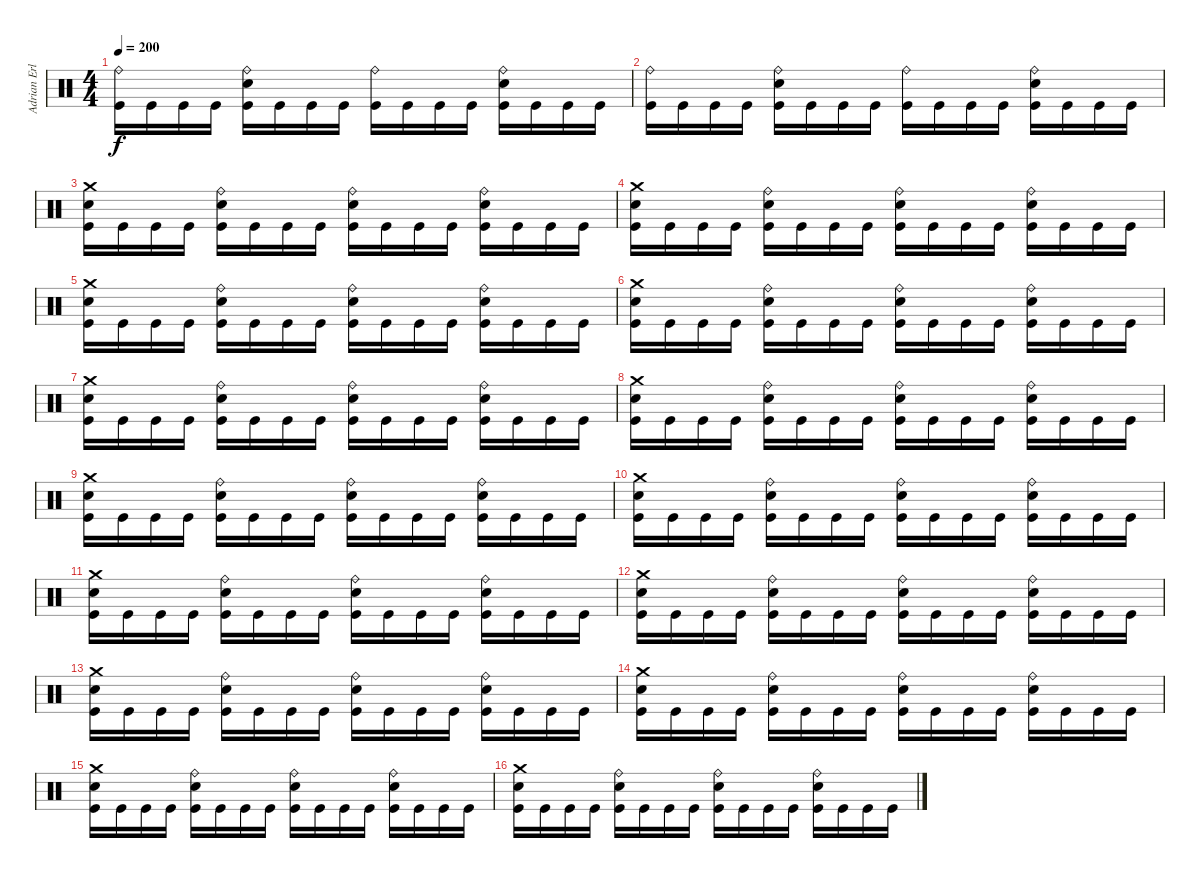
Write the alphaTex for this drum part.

\track ("Adrian Erlandsson" "Adrian Erl") {instrument percussion}
\staff {score}
\articulation defaults
\ts (4 4)
\tempo 200
\clef neutral
\ks c
("Ride (bell)" "Kick (hit)").16{dy f} "Kick (hit)".16 "Kick (hit)".16 "Kick (hit)".16 ("Ride (bell)" "Electric Snare (hit)" "Kick (hit)").16 "Kick (hit)".16 "Kick (hit)".16 "Kick (hit)".16 ("Ride (bell)" "Kick (hit)").16 "Kick (hit)".16 "Kick (hit)".16 "Kick (hit)".16 ("Ride (bell)" "Electric Snare (hit)" "Kick (hit)").16 "Kick (hit)".16 "Kick (hit)".16 "Kick (hit)".16 |
("Ride (bell)" "Kick (hit)").16 "Kick (hit)".16 "Kick (hit)".16 "Kick (hit)".16 ("Ride (bell)" "Electric Snare (hit)" "Kick (hit)").16 "Kick (hit)".16 "Kick (hit)".16 "Kick (hit)".16 ("Ride (bell)" "Kick (hit)").16 "Kick (hit)".16 "Kick (hit)".16 "Kick (hit)".16 ("Ride (bell)" "Electric Snare (hit)" "Kick (hit)").16 "Kick (hit)".16 "Kick (hit)".16 "Kick (hit)".16 |
("Crash medium (hit)" "Electric Snare (hit)" "Kick (hit)").16 "Kick (hit)".16 "Kick (hit)".16 "Kick (hit)".16 ("Ride (bell)" "Electric Snare (hit)" "Kick (hit)").16 "Kick (hit)".16 "Kick (hit)".16 "Kick (hit)".16 ("Ride (bell)" "Electric Snare (hit)" "Kick (hit)").16 "Kick (hit)".16 "Kick (hit)".16 "Kick (hit)".16 ("Ride (bell)" "Electric Snare (hit)" "Kick (hit)").16 "Kick (hit)".16 "Kick (hit)".16 "Kick (hit)".16 |
("Crash medium (hit)" "Electric Snare (hit)" "Kick (hit)").16 "Kick (hit)".16 "Kick (hit)".16 "Kick (hit)".16 ("Ride (bell)" "Electric Snare (hit)" "Kick (hit)").16 "Kick (hit)".16 "Kick (hit)".16 "Kick (hit)".16 ("Ride (bell)" "Electric Snare (hit)" "Kick (hit)").16 "Kick (hit)".16 "Kick (hit)".16 "Kick (hit)".16 ("Ride (bell)" "Electric Snare (hit)" "Kick (hit)").16 "Kick (hit)".16 "Kick (hit)".16 "Kick (hit)".16 |
("Crash medium (hit)" "Electric Snare (hit)" "Kick (hit)").16 "Kick (hit)".16 "Kick (hit)".16 "Kick (hit)".16 ("Ride (bell)" "Electric Snare (hit)" "Kick (hit)").16 "Kick (hit)".16 "Kick (hit)".16 "Kick (hit)".16 ("Ride (bell)" "Electric Snare (hit)" "Kick (hit)").16 "Kick (hit)".16 "Kick (hit)".16 "Kick (hit)".16 ("Ride (bell)" "Electric Snare (hit)" "Kick (hit)").16 "Kick (hit)".16 "Kick (hit)".16 "Kick (hit)".16 |
("Crash medium (hit)" "Electric Snare (hit)" "Kick (hit)").16 "Kick (hit)".16 "Kick (hit)".16 "Kick (hit)".16 ("Ride (bell)" "Electric Snare (hit)" "Kick (hit)").16 "Kick (hit)".16 "Kick (hit)".16 "Kick (hit)".16 ("Ride (bell)" "Electric Snare (hit)" "Kick (hit)").16 "Kick (hit)".16 "Kick (hit)".16 "Kick (hit)".16 ("Ride (bell)" "Electric Snare (hit)" "Kick (hit)").16 "Kick (hit)".16 "Kick (hit)".16 "Kick (hit)".16 |
("Crash medium (hit)" "Electric Snare (hit)" "Kick (hit)").16 "Kick (hit)".16 "Kick (hit)".16 "Kick (hit)".16 ("Ride (bell)" "Electric Snare (hit)" "Kick (hit)").16 "Kick (hit)".16 "Kick (hit)".16 "Kick (hit)".16 ("Ride (bell)" "Electric Snare (hit)" "Kick (hit)").16 "Kick (hit)".16 "Kick (hit)".16 "Kick (hit)".16 ("Ride (bell)" "Electric Snare (hit)" "Kick (hit)").16 "Kick (hit)".16 "Kick (hit)".16 "Kick (hit)".16 |
("Crash medium (hit)" "Electric Snare (hit)" "Kick (hit)").16 "Kick (hit)".16 "Kick (hit)".16 "Kick (hit)".16 ("Ride (bell)" "Electric Snare (hit)" "Kick (hit)").16 "Kick (hit)".16 "Kick (hit)".16 "Kick (hit)".16 ("Ride (bell)" "Electric Snare (hit)" "Kick (hit)").16 "Kick (hit)".16 "Kick (hit)".16 "Kick (hit)".16 ("Ride (bell)" "Electric Snare (hit)" "Kick (hit)").16 "Kick (hit)".16 "Kick (hit)".16 "Kick (hit)".16 |
("Crash medium (hit)" "Electric Snare (hit)" "Kick (hit)").16 "Kick (hit)".16 "Kick (hit)".16 "Kick (hit)".16 ("Ride (bell)" "Electric Snare (hit)" "Kick (hit)").16 "Kick (hit)".16 "Kick (hit)".16 "Kick (hit)".16 ("Ride (bell)" "Electric Snare (hit)" "Kick (hit)").16 "Kick (hit)".16 "Kick (hit)".16 "Kick (hit)".16 ("Ride (bell)" "Electric Snare (hit)" "Kick (hit)").16 "Kick (hit)".16 "Kick (hit)".16 "Kick (hit)".16 |
("Crash medium (hit)" "Electric Snare (hit)" "Kick (hit)").16 "Kick (hit)".16 "Kick (hit)".16 "Kick (hit)".16 ("Ride (bell)" "Electric Snare (hit)" "Kick (hit)").16 "Kick (hit)".16 "Kick (hit)".16 "Kick (hit)".16 ("Ride (bell)" "Electric Snare (hit)" "Kick (hit)").16 "Kick (hit)".16 "Kick (hit)".16 "Kick (hit)".16 ("Ride (bell)" "Electric Snare (hit)" "Kick (hit)").16 "Kick (hit)".16 "Kick (hit)".16 "Kick (hit)".16 |
("Crash medium (hit)" "Electric Snare (hit)" "Kick (hit)").16 "Kick (hit)".16 "Kick (hit)".16 "Kick (hit)".16 ("Ride (bell)" "Electric Snare (hit)" "Kick (hit)").16 "Kick (hit)".16 "Kick (hit)".16 "Kick (hit)".16 ("Ride (bell)" "Electric Snare (hit)" "Kick (hit)").16 "Kick (hit)".16 "Kick (hit)".16 "Kick (hit)".16 ("Ride (bell)" "Electric Snare (hit)" "Kick (hit)").16 "Kick (hit)".16 "Kick (hit)".16 "Kick (hit)".16 |
("Crash medium (hit)" "Electric Snare (hit)" "Kick (hit)").16 "Kick (hit)".16 "Kick (hit)".16 "Kick (hit)".16 ("Ride (bell)" "Electric Snare (hit)" "Kick (hit)").16 "Kick (hit)".16 "Kick (hit)".16 "Kick (hit)".16 ("Ride (bell)" "Electric Snare (hit)" "Kick (hit)").16 "Kick (hit)".16 "Kick (hit)".16 "Kick (hit)".16 ("Ride (bell)" "Electric Snare (hit)" "Kick (hit)").16 "Kick (hit)".16 "Kick (hit)".16 "Kick (hit)".16 |
("Crash medium (hit)" "Electric Snare (hit)" "Kick (hit)").16 "Kick (hit)".16 "Kick (hit)".16 "Kick (hit)".16 ("Ride (bell)" "Electric Snare (hit)" "Kick (hit)").16 "Kick (hit)".16 "Kick (hit)".16 "Kick (hit)".16 ("Ride (bell)" "Electric Snare (hit)" "Kick (hit)").16 "Kick (hit)".16 "Kick (hit)".16 "Kick (hit)".16 ("Ride (bell)" "Electric Snare (hit)" "Kick (hit)").16 "Kick (hit)".16 "Kick (hit)".16 "Kick (hit)".16 |
("Crash medium (hit)" "Electric Snare (hit)" "Kick (hit)").16 "Kick (hit)".16 "Kick (hit)".16 "Kick (hit)".16 ("Ride (bell)" "Electric Snare (hit)" "Kick (hit)").16 "Kick (hit)".16 "Kick (hit)".16 "Kick (hit)".16 ("Ride (bell)" "Electric Snare (hit)" "Kick (hit)").16 "Kick (hit)".16 "Kick (hit)".16 "Kick (hit)".16 ("Ride (bell)" "Electric Snare (hit)" "Kick (hit)").16 "Kick (hit)".16 "Kick (hit)".16 "Kick (hit)".16 |
("Crash medium (hit)" "Electric Snare (hit)" "Kick (hit)").16 "Kick (hit)".16 "Kick (hit)".16 "Kick (hit)".16 ("Ride (bell)" "Electric Snare (hit)" "Kick (hit)").16 "Kick (hit)".16 "Kick (hit)".16 "Kick (hit)".16 ("Ride (bell)" "Electric Snare (hit)" "Kick (hit)").16 "Kick (hit)".16 "Kick (hit)".16 "Kick (hit)".16 ("Ride (bell)" "Electric Snare (hit)" "Kick (hit)").16 "Kick (hit)".16 "Kick (hit)".16 "Kick (hit)".16 |
("Crash medium (hit)" "Electric Snare (hit)" "Kick (hit)").16 "Kick (hit)".16 "Kick (hit)".16 "Kick (hit)".16 ("Ride (bell)" "Electric Snare (hit)" "Kick (hit)").16 "Kick (hit)".16 "Kick (hit)".16 "Kick (hit)".16 ("Ride (bell)" "Electric Snare (hit)" "Kick (hit)").16 "Kick (hit)".16 "Kick (hit)".16 "Kick (hit)".16 ("Ride (bell)" "Electric Snare (hit)" "Kick (hit)").16 "Kick (hit)".16 "Kick (hit)".16 "Kick (hit)".16
